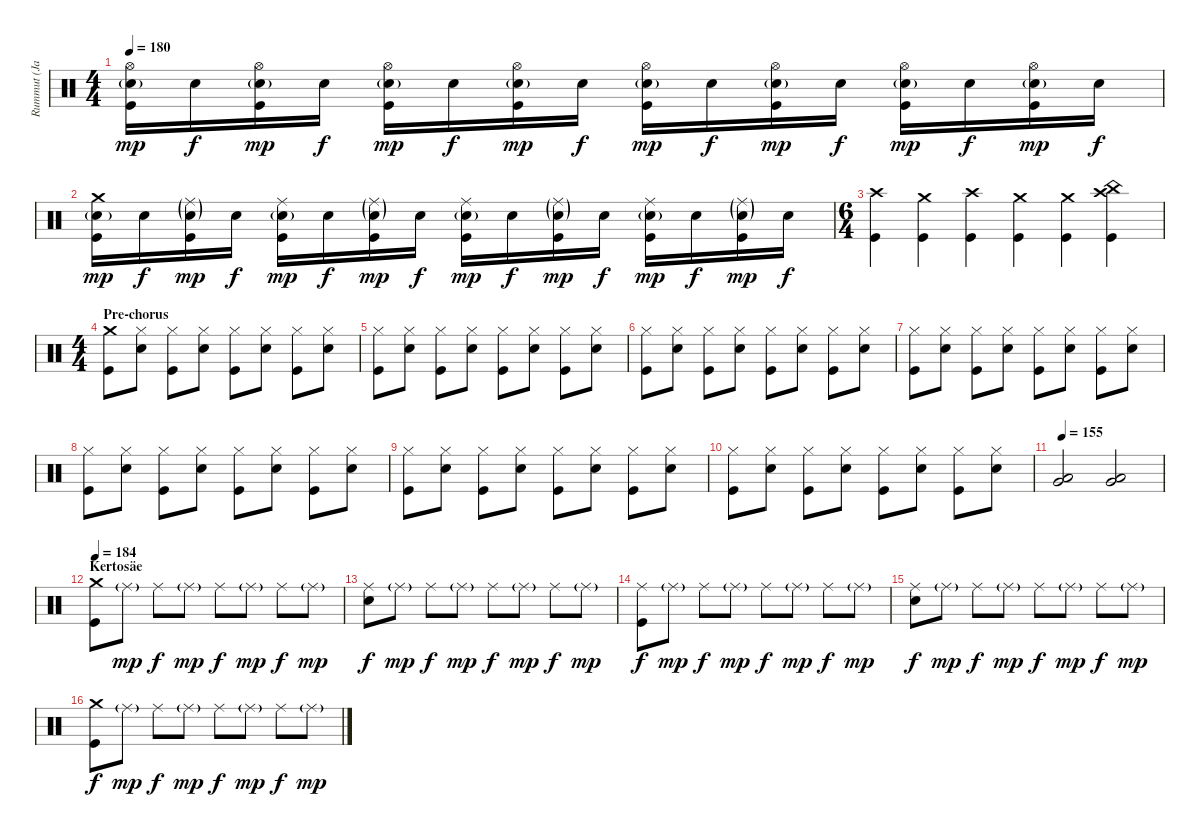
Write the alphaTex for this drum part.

\track ("Rummut (Janne)" "Rummut (Ja") {instrument percussion}
\staff {score}
\articulation defaults
\ts (4 4)
\tempo 180
\clef neutral
\ks c
("Hi-Hat (open)" "Snare (hit) 2"{g} "Kick (hit)").16{dy mp} "Snare (hit) 2".16{dy f} ("Hi-Hat (open)" "Snare (hit) 2"{g} "Kick (hit)").16{dy mp} "Snare (hit) 2".16{dy f} ("Hi-Hat (open)" "Snare (hit) 2"{g} "Kick (hit)").16{dy mp} "Snare (hit) 2".16{dy f} ("Hi-Hat (open)" "Snare (hit) 2"{g} "Kick (hit)").16{dy mp} "Snare (hit) 2".16{dy f} ("Hi-Hat (open)" "Snare (hit) 2"{g} "Kick (hit)").16{dy mp} "Snare (hit) 2".16{dy f} ("Hi-Hat (open)" "Snare (hit) 2"{g} "Kick (hit)").16{dy mp} "Snare (hit) 2".16{dy f} ("Hi-Hat (open)" "Snare (hit) 2"{g} "Kick (hit)").16{dy mp} "Snare (hit) 2".16{dy f} ("Hi-Hat (open)" "Snare (hit) 2"{g} "Kick (hit)").16{dy mp} "Snare (hit) 2".16{dy f} |
("Crash medium (hit)" "Snare (hit) 2"{g} "Kick (hit)").16{dy mp} "Snare (hit) 2".16{dy f} ("Ride (middle)"{g} "Snare (hit) 2"{g} "Kick (hit)").16{dy mp} "Snare (hit) 2".16{dy f} ("Ride (middle)" "Snare (hit) 2"{g} "Kick (hit)").16{dy mp} "Snare (hit) 2".16{dy f} ("Ride (middle)"{g} "Snare (hit) 2"{g} "Kick (hit)").16{dy mp} "Snare (hit) 2".16{dy f} ("Ride (middle)" "Snare (hit) 2"{g} "Kick (hit)").16{dy mp} "Snare (hit) 2".16{dy f} ("Ride (middle)"{g} "Snare (hit) 2"{g} "Kick (hit)").16{dy mp} "Snare (hit) 2".16{dy f} ("Ride (middle)" "Snare (hit) 2"{g} "Kick (hit)").16{dy mp} "Snare (hit) 2".16{dy f} ("Ride (middle)"{g} "Snare (hit) 2"{g} "Kick (hit)").16{dy mp} "Snare (hit) 2".16{dy f} |
\ts (6 4)
("Crash high (hit)" "Kick (hit)").4 ("Crash medium (hit)" "Kick (hit)").4 ("Crash high (hit)" "Kick (hit)").4 ("Crash medium (hit)" "Kick (hit)").4 ("Crash medium (hit)" "Kick (hit)").4 ("Crash high (hit)" "China (hit)" "Kick (hit)").4 |
\ts (4 4)
\section ("" "Pre-chorus")
("Crash medium (hit)" "Kick (hit)").8 ("Hi-Hat (closed)" "Snare (hit) 2").8 ("Hi-Hat (closed)" "Kick (hit)").8 ("Hi-Hat (closed)" "Snare (hit) 2").8 ("Hi-Hat (closed)" "Kick (hit)").8 ("Hi-Hat (closed)" "Snare (hit) 2").8 ("Hi-Hat (closed)" "Kick (hit)").8 ("Hi-Hat (closed)" "Snare (hit) 2").8 |
("Hi-Hat (closed)" "Kick (hit)").8 ("Hi-Hat (closed)" "Snare (hit) 2").8 ("Hi-Hat (closed)" "Kick (hit)").8 ("Hi-Hat (closed)" "Snare (hit) 2").8 ("Hi-Hat (closed)" "Kick (hit)").8 ("Hi-Hat (closed)" "Snare (hit) 2").8 ("Hi-Hat (closed)" "Kick (hit)").8 ("Hi-Hat (closed)" "Snare (hit) 2").8 |
("Hi-Hat (closed)" "Kick (hit)").8 ("Hi-Hat (closed)" "Snare (hit) 2").8 ("Hi-Hat (closed)" "Kick (hit)").8 ("Hi-Hat (closed)" "Snare (hit) 2").8 ("Hi-Hat (closed)" "Kick (hit)").8 ("Hi-Hat (closed)" "Snare (hit) 2").8 ("Hi-Hat (closed)" "Kick (hit)").8 ("Hi-Hat (closed)" "Snare (hit) 2").8 |
("Hi-Hat (closed)" "Kick (hit)").8 ("Hi-Hat (closed)" "Snare (hit) 2").8 ("Hi-Hat (closed)" "Kick (hit)").8 ("Hi-Hat (closed)" "Snare (hit) 2").8 ("Hi-Hat (closed)" "Kick (hit)").8 ("Hi-Hat (closed)" "Snare (hit) 2").8 ("Hi-Hat (closed)" "Kick (hit)").8 ("Hi-Hat (closed)" "Snare (hit) 2").8 |
("Hi-Hat (closed)" "Kick (hit)").8 ("Hi-Hat (closed)" "Snare (hit) 2").8 ("Hi-Hat (closed)" "Kick (hit)").8 ("Hi-Hat (closed)" "Snare (hit) 2").8 ("Hi-Hat (closed)" "Kick (hit)").8 ("Hi-Hat (closed)" "Snare (hit) 2").8 ("Hi-Hat (closed)" "Kick (hit)").8 ("Hi-Hat (closed)" "Snare (hit) 2").8 |
("Hi-Hat (closed)" "Kick (hit)").8 ("Hi-Hat (closed)" "Snare (hit) 2").8 ("Hi-Hat (closed)" "Kick (hit)").8 ("Hi-Hat (closed)" "Snare (hit) 2").8 ("Hi-Hat (closed)" "Kick (hit)").8 ("Hi-Hat (closed)" "Snare (hit) 2").8 ("Hi-Hat (closed)" "Kick (hit)").8 ("Hi-Hat (closed)" "Snare (hit) 2").8 |
("Hi-Hat (closed)" "Kick (hit)").8 ("Hi-Hat (closed)" "Snare (hit) 2").8 ("Hi-Hat (closed)" "Kick (hit)").8 ("Hi-Hat (closed)" "Snare (hit) 2").8 ("Hi-Hat (closed)" "Kick (hit)").8 ("Hi-Hat (closed)" "Snare (hit) 2").8 ("Hi-Hat (closed)" "Kick (hit)").8 ("Hi-Hat (closed)" "Snare (hit) 2").8 |
\tempo 165
\tempo 155
("Low Tom (hit)" "Very Low Tom (hit)").2 ("Low Tom (hit)" "Very Low Tom (hit)").2 |
\section ("" "Kertosäe")
\tempo 184
("Crash medium (hit)" "Kick (hit)").8 "Ride (middle)"{g}.8{dy mp} "Ride (middle)".8{dy f} "Ride (middle)"{g}.8{dy mp} "Ride (middle)".8{dy f} "Ride (middle)"{g}.8{dy mp} "Ride (middle)".8{dy f} "Ride (middle)"{g}.8{dy mp} |
("Ride (middle)" "Snare (hit) 2").8{dy f} "Ride (middle)"{g}.8{dy mp} "Ride (middle)".8{dy f} "Ride (middle)"{g}.8{dy mp} "Ride (middle)".8{dy f} "Ride (middle)"{g}.8{dy mp} "Ride (middle)".8{dy f} "Ride (middle)"{g}.8{dy mp} |
("Ride (middle)" "Kick (hit)").8{dy f} "Ride (middle)"{g}.8{dy mp} "Ride (middle)".8{dy f} "Ride (middle)"{g}.8{dy mp} "Ride (middle)".8{dy f} "Ride (middle)"{g}.8{dy mp} "Ride (middle)".8{dy f} "Ride (middle)"{g}.8{dy mp} |
("Ride (middle)" "Snare (hit) 2").8{dy f} "Ride (middle)"{g}.8{dy mp} "Ride (middle)".8{dy f} "Ride (middle)"{g}.8{dy mp} "Ride (middle)".8{dy f} "Ride (middle)"{g}.8{dy mp} "Ride (middle)".8{dy f} "Ride (middle)"{g}.8{dy mp} |
("Crash medium (hit)" "Kick (hit)").8{dy f} "Ride (middle)"{g}.8{dy mp} "Ride (middle)".8{dy f} "Ride (middle)"{g}.8{dy mp} "Ride (middle)".8{dy f} "Ride (middle)"{g}.8{dy mp} "Ride (middle)".8{dy f} "Ride (middle)"{g}.8{dy mp}
